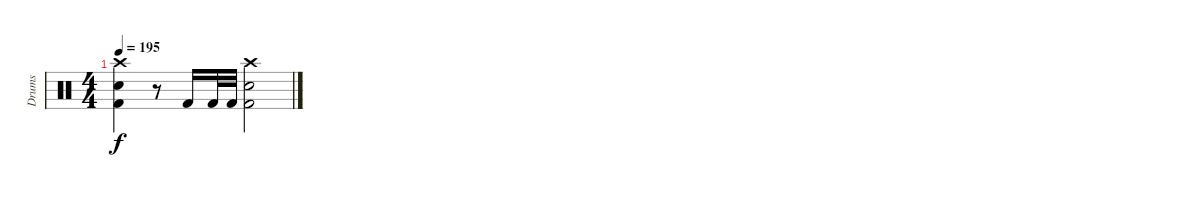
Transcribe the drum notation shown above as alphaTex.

\track ("Drums" "Drums") {instrument percussion}
\staff {score}
\articulation defaults
\ts (4 4)
\tempo 195
\clef neutral
\ks c
("Crash high (hit)" "Snare (hit) 2" "Kick (hit) 2").4{dy f} r.8 "Kick (hit) 2".16 "Kick (hit) 2".32 "Kick (hit) 2".32 ("Crash high (hit)"{pm} "Snare (hit) 2" "Kick (hit) 2").2
